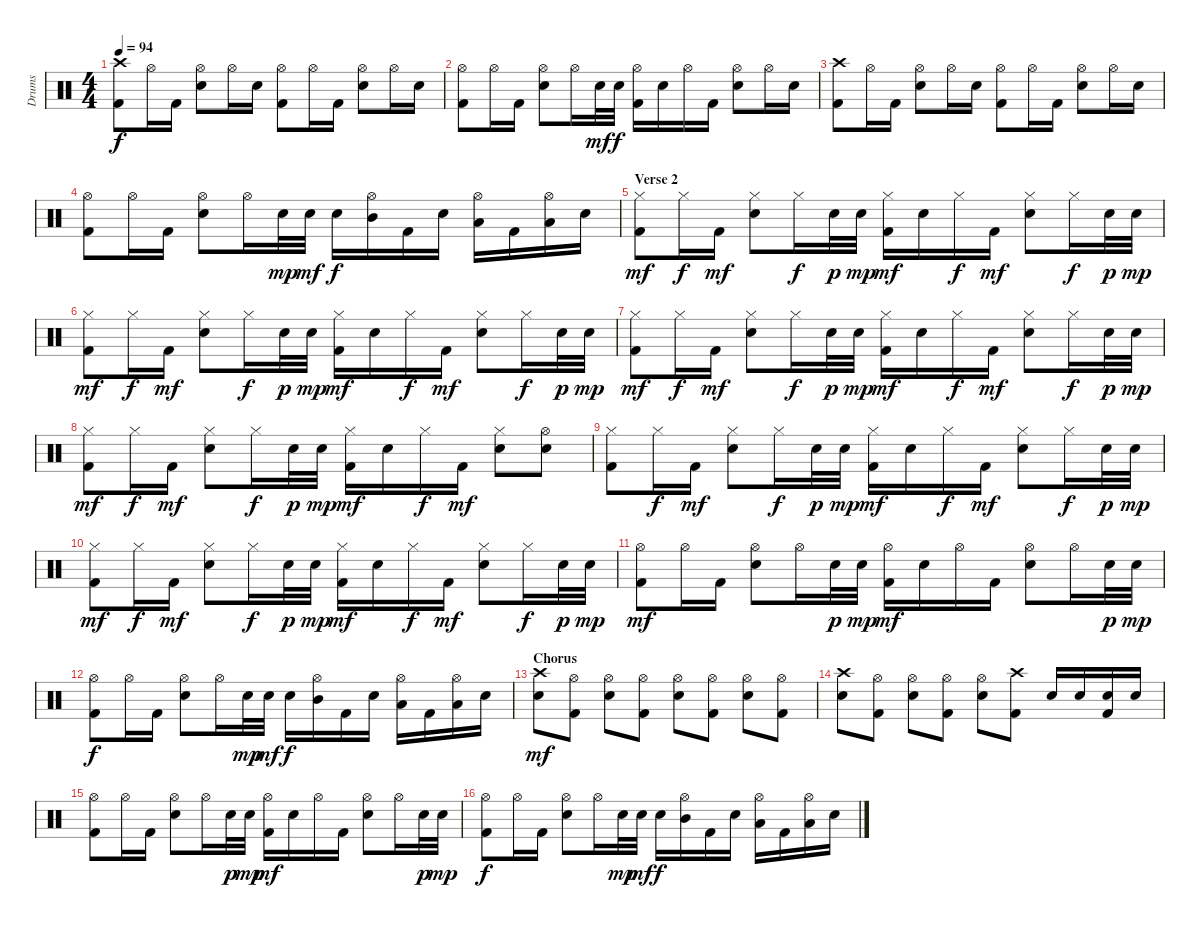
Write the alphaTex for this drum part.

\track ("Drums" "Drums") {instrument percussion}
\staff {score}
\articulation defaults
\ts (4 4)
\tempo 94
\clef neutral
\ks c
("Crash high (hit)" "Kick (hit) 2").8{dy f} "Hi-Hat (open)".16 "Kick (hit) 2".16 ("Hi-Hat (open)" "Snare (hit) 2").8 "Hi-Hat (open)".16 "Snare (hit) 2".16 ("Hi-Hat (open)" "Kick (hit) 2").8 "Hi-Hat (open)".16 "Kick (hit) 2".16 ("Hi-Hat (open)" "Snare (hit) 2").8 "Hi-Hat (open)".16 "Snare (hit) 2".16 |
("Hi-Hat (open)" "Kick (hit) 2").8 "Hi-Hat (open)".16 "Kick (hit) 2".16 ("Hi-Hat (open)" "Snare (hit) 2").8 "Hi-Hat (open)".16 "Snare (hit) 2".32{dy mf} "Snare (hit) 2".32{dy f} ("Hi-Hat (open)" "Kick (hit) 2").16 "Snare (hit) 2".16 "Hi-Hat (open)".16 "Kick (hit) 2".16 ("Hi-Hat (open)" "Snare (hit) 2").8 "Hi-Hat (open)".16 "Snare (hit) 2".16 |
("Crash high (hit)" "Kick (hit) 2").8 "Hi-Hat (open)".16 "Kick (hit) 2".16 ("Hi-Hat (open)" "Snare (hit) 2").8 "Hi-Hat (open)".16 "Snare (hit) 2".16 ("Hi-Hat (open)" "Kick (hit) 2").8 "Hi-Hat (open)".16 "Kick (hit) 2".16 ("Hi-Hat (open)" "Snare (hit) 2").8 "Hi-Hat (open)".16 "Snare (hit) 2".16 |
("Hi-Hat (open)" "Kick (hit) 2").8 "Hi-Hat (open)".16 "Kick (hit) 2".16 ("Hi-Hat (open)" "Snare (hit) 2").8 "Hi-Hat (open)".16 "Snare (hit) 2".32{dy mp} "Snare (hit) 2".32{dy mf} "Snare (hit) 2".16{dy f} ("Hi-Hat (open)" "Mid Tom (hit)").16 "Kick (hit) 2".16 "Snare (hit) 2".16 ("Hi-Hat (open)" "Low Tom (hit)").16 "Kick (hit) 2".16 ("Hi-Hat (open)" "Low Floor Tom (hit)").16 "Snare (hit) 2".16 |
\section ("" "Verse 2")
("Hi-Hat (closed)" "Kick (hit) 2").8{dy mf} "Hi-Hat (closed)".16{dy f} "Kick (hit) 2".16{dy mf} ("Hi-Hat (closed)" "Snare (hit) 2").8 "Hi-Hat (closed)".16{dy f} "Snare (hit) 2".32{dy p} "Snare (hit) 2".32{dy mp} ("Hi-Hat (closed)" "Kick (hit) 2").16{dy mf} "Snare (hit) 2".16 "Hi-Hat (closed)".16{dy f} "Kick (hit) 2".16{dy mf} ("Hi-Hat (closed)" "Snare (hit) 2").8 "Hi-Hat (closed)".16{dy f} "Snare (hit) 2".32{dy p} "Snare (hit) 2".32{dy mp} |
("Hi-Hat (closed)" "Kick (hit) 2").8{dy mf} "Hi-Hat (closed)".16{dy f} "Kick (hit) 2".16{dy mf} ("Hi-Hat (closed)" "Snare (hit) 2").8 "Hi-Hat (closed)".16{dy f} "Snare (hit) 2".32{dy p} "Snare (hit) 2".32{dy mp} ("Hi-Hat (closed)" "Kick (hit) 2").16{dy mf} "Snare (hit) 2".16 "Hi-Hat (closed)".16{dy f} "Kick (hit) 2".16{dy mf} ("Hi-Hat (closed)" "Snare (hit) 2").8 "Hi-Hat (closed)".16{dy f} "Snare (hit) 2".32{dy p} "Snare (hit) 2".32{dy mp} |
("Hi-Hat (closed)" "Kick (hit) 2").8{dy mf} "Hi-Hat (closed)".16{dy f} "Kick (hit) 2".16{dy mf} ("Hi-Hat (closed)" "Snare (hit) 2").8 "Hi-Hat (closed)".16{dy f} "Snare (hit) 2".32{dy p} "Snare (hit) 2".32{dy mp} ("Hi-Hat (closed)" "Kick (hit) 2").16{dy mf} "Snare (hit) 2".16 "Hi-Hat (closed)".16{dy f} "Kick (hit) 2".16{dy mf} ("Hi-Hat (closed)" "Snare (hit) 2").8 "Hi-Hat (closed)".16{dy f} "Snare (hit) 2".32{dy p} "Snare (hit) 2".32{dy mp} |
("Hi-Hat (closed)" "Kick (hit) 2").8{dy mf} "Hi-Hat (closed)".16{dy f} "Kick (hit) 2".16{dy mf} ("Hi-Hat (closed)" "Snare (hit) 2").8 "Hi-Hat (closed)".16{dy f} "Snare (hit) 2".32{dy p} "Snare (hit) 2".32{dy mp} ("Hi-Hat (closed)" "Kick (hit) 2").16{dy mf} "Snare (hit) 2".16 "Hi-Hat (closed)".16{dy f} "Kick (hit) 2".16{dy mf} ("Hi-Hat (closed)" "Snare (hit) 2").8 ("Hi-Hat (open)" "Snare (hit) 2").8 |
("Hi-Hat (closed)" "Kick (hit) 2").8 "Hi-Hat (closed)".16{dy f} "Kick (hit) 2".16{dy mf} ("Hi-Hat (closed)" "Snare (hit) 2").8 "Hi-Hat (closed)".16{dy f} "Snare (hit) 2".32{dy p} "Snare (hit) 2".32{dy mp} ("Hi-Hat (closed)" "Kick (hit) 2").16{dy mf} "Snare (hit) 2".16 "Hi-Hat (closed)".16{dy f} "Kick (hit) 2".16{dy mf} ("Hi-Hat (closed)" "Snare (hit) 2").8 "Hi-Hat (closed)".16{dy f} "Snare (hit) 2".32{dy p} "Snare (hit) 2".32{dy mp} |
("Hi-Hat (closed)" "Kick (hit) 2").8{dy mf} "Hi-Hat (closed)".16{dy f} "Kick (hit) 2".16{dy mf} ("Hi-Hat (closed)" "Snare (hit) 2").8 "Hi-Hat (closed)".16{dy f} "Snare (hit) 2".32{dy p} "Snare (hit) 2".32{dy mp} ("Hi-Hat (closed)" "Kick (hit) 2").16{dy mf} "Snare (hit) 2".16 "Hi-Hat (closed)".16{dy f} "Kick (hit) 2".16{dy mf} ("Hi-Hat (closed)" "Snare (hit) 2").8 "Hi-Hat (closed)".16{dy f} "Snare (hit) 2".32{dy p} "Snare (hit) 2".32{dy mp} |
("Hi-Hat (open)" "Kick (hit) 2").8{dy mf} "Hi-Hat (open)".16 "Kick (hit) 2".16 ("Hi-Hat (open)" "Snare (hit) 2").8 "Hi-Hat (open)".16 "Snare (hit) 2".32{dy p} "Snare (hit) 2".32{dy mp} ("Hi-Hat (open)" "Kick (hit) 2").16{dy mf} "Snare (hit) 2".16 "Hi-Hat (open)".16 "Kick (hit) 2".16 ("Hi-Hat (open)" "Snare (hit) 2").8 "Hi-Hat (open)".16 "Snare (hit) 2".32{dy p} "Snare (hit) 2".32{dy mp} |
("Hi-Hat (open)" "Kick (hit) 2").8{dy f} "Hi-Hat (open)".16 "Kick (hit) 2".16 ("Hi-Hat (open)" "Snare (hit) 2").8 "Hi-Hat (open)".16 "Snare (hit) 2".32{dy mp} "Snare (hit) 2".32{dy mf} "Snare (hit) 2".16{dy f} ("Hi-Hat (open)" "Mid Tom (hit)").16 "Kick (hit) 2".16 "Snare (hit) 2".16 ("Hi-Hat (open)" "Low Tom (hit)").16 "Kick (hit) 2".16 ("Hi-Hat (open)" "Low Floor Tom (hit)").16 "Snare (hit) 2".16 |
\section ("" "Chorus")
("Crash high (hit)" "Snare (hit) 2").8{dy mf} ("Hi-Hat (open)" "Kick (hit) 2").8 ("Hi-Hat (open)" "Snare (hit) 2").8 ("Hi-Hat (open)" "Kick (hit) 2").8 ("Hi-Hat (open)" "Snare (hit) 2").8 ("Hi-Hat (open)" "Kick (hit) 2").8 ("Hi-Hat (open)" "Snare (hit) 2").8 ("Hi-Hat (open)" "Kick (hit) 2").8 |
("Crash high (hit)" "Snare (hit) 2").8 ("Hi-Hat (open)" "Kick (hit) 2").8 ("Hi-Hat (open)" "Snare (hit) 2").8 ("Hi-Hat (open)" "Kick (hit) 2").8 ("Hi-Hat (open)" "Snare (hit) 2").8 ("Crash high (hit)" "Kick (hit) 2").8 "Snare (hit) 2".16 "Snare (hit) 2".16 ("Snare (hit) 2" "Kick (hit) 2").16 "Snare (hit) 2".16 |
("Hi-Hat (open)" "Kick (hit) 2").8 "Hi-Hat (open)".16 "Kick (hit) 2".16 ("Hi-Hat (open)" "Snare (hit) 2").8 "Hi-Hat (open)".16 "Snare (hit) 2".32{dy p} "Snare (hit) 2".32{dy mp} ("Hi-Hat (open)" "Kick (hit) 2").16{dy mf} "Snare (hit) 2".16 "Hi-Hat (open)".16 "Kick (hit) 2".16 ("Hi-Hat (open)" "Snare (hit) 2").8 "Hi-Hat (open)".16 "Snare (hit) 2".32{dy p} "Snare (hit) 2".32{dy mp} |
("Hi-Hat (open)" "Kick (hit) 2").8{dy f} "Hi-Hat (open)".16 "Kick (hit) 2".16 ("Hi-Hat (open)" "Snare (hit) 2").8 "Hi-Hat (open)".16 "Snare (hit) 2".32{dy mp} "Snare (hit) 2".32{dy mf} "Snare (hit) 2".16{dy f} ("Hi-Hat (open)" "Mid Tom (hit)").16 "Kick (hit) 2".16 "Snare (hit) 2".16 ("Hi-Hat (open)" "Low Tom (hit)").16 "Kick (hit) 2".16 ("Hi-Hat (open)" "Low Floor Tom (hit)").16 "Snare (hit) 2".16
